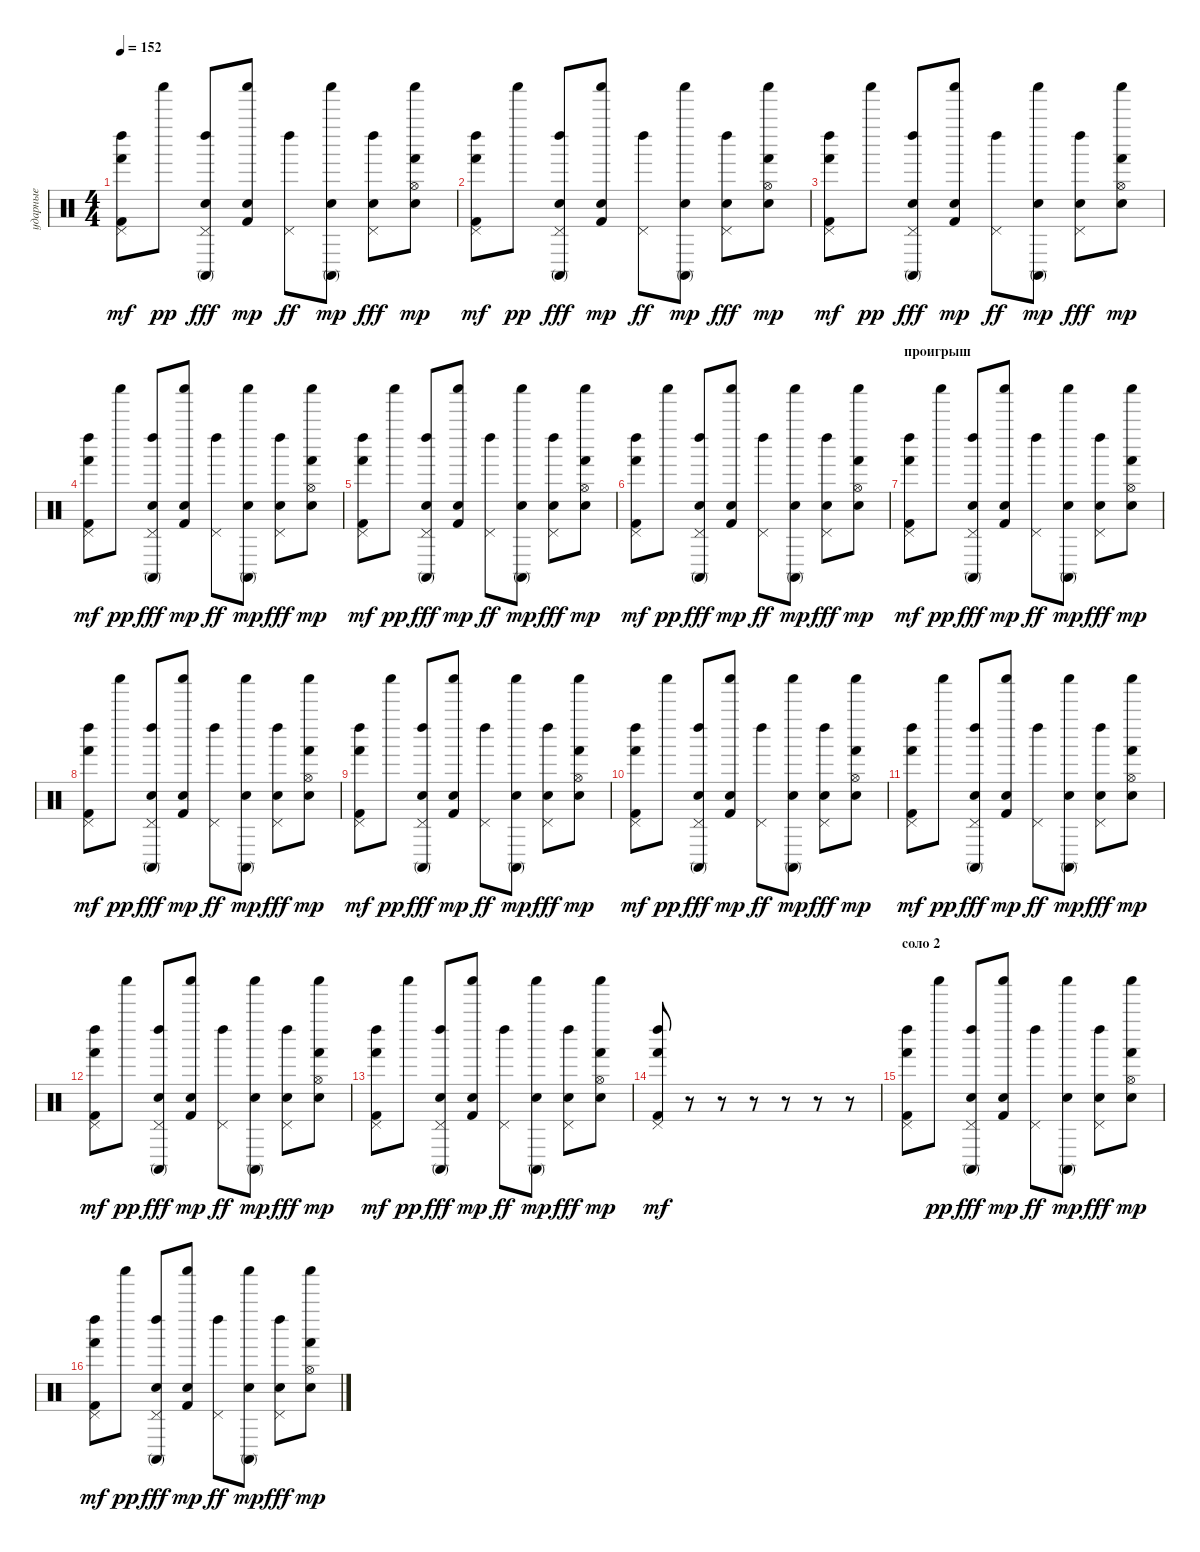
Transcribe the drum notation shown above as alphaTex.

\track ("ударные" "ударные") {instrument percussion}
\staff {score}
\articulation defaults
\ts (4 4)
\tempo 152
\clef neutral
\ks c
("Pedal Hi-Hat (hit)" "Left Maraca (hit)" "Hand (hit)" "Kick (hit) 2").8{dy mf} "Shaker (hit)".8{dy pp} ("Pedal Hi-Hat (hit)" "Left Maraca (hit)" "Conga high (mute)" "Snare (hit) 2").8{dy fff} ("Shaker (hit)" "Kick (hit) 2" "Electric Snare (hit)").8{dy mp} ("Pedal Hi-Hat (hit)" "Left Maraca (hit)").8{dy ff} ("Shaker (hit)" "Conga high (mute)" "Electric Snare (hit)").8{dy mp} ("Pedal Hi-Hat (hit)" "Left Maraca (hit)" "Snare (hit) 2").8{dy fff} ("Shaker (hit)" "Hi-Hat (open)" "Hand (hit)" "Electric Snare (hit)").8{dy mp} |
("Pedal Hi-Hat (hit)" "Left Maraca (hit)" "Hand (hit)" "Kick (hit) 2").8{dy mf} "Shaker (hit)".8{dy pp} ("Pedal Hi-Hat (hit)" "Left Maraca (hit)" "Conga high (mute)" "Snare (hit) 2").8{dy fff} ("Shaker (hit)" "Kick (hit) 2" "Electric Snare (hit)").8{dy mp} ("Pedal Hi-Hat (hit)" "Left Maraca (hit)").8{dy ff} ("Shaker (hit)" "Conga high (mute)" "Electric Snare (hit)").8{dy mp} ("Pedal Hi-Hat (hit)" "Left Maraca (hit)" "Snare (hit) 2").8{dy fff} ("Shaker (hit)" "Hi-Hat (open)" "Hand (hit)" "Electric Snare (hit)").8{dy mp} |
("Pedal Hi-Hat (hit)" "Left Maraca (hit)" "Hand (hit)" "Kick (hit) 2").8{dy mf} "Shaker (hit)".8{dy pp} ("Pedal Hi-Hat (hit)" "Left Maraca (hit)" "Conga high (mute)" "Snare (hit) 2").8{dy fff} ("Shaker (hit)" "Kick (hit) 2" "Electric Snare (hit)").8{dy mp} ("Pedal Hi-Hat (hit)" "Left Maraca (hit)").8{dy ff} ("Shaker (hit)" "Conga high (mute)" "Electric Snare (hit)").8{dy mp} ("Pedal Hi-Hat (hit)" "Left Maraca (hit)" "Snare (hit) 2").8{dy fff} ("Shaker (hit)" "Hi-Hat (open)" "Hand (hit)" "Electric Snare (hit)").8{dy mp} |
("Pedal Hi-Hat (hit)" "Left Maraca (hit)" "Hand (hit)" "Kick (hit) 2").8{dy mf} "Shaker (hit)".8{dy pp} ("Pedal Hi-Hat (hit)" "Left Maraca (hit)" "Conga high (mute)" "Snare (hit) 2").8{dy fff} ("Shaker (hit)" "Kick (hit) 2" "Electric Snare (hit)").8{dy mp} ("Pedal Hi-Hat (hit)" "Left Maraca (hit)").8{dy ff} ("Shaker (hit)" "Conga high (mute)" "Electric Snare (hit)").8{dy mp} ("Pedal Hi-Hat (hit)" "Left Maraca (hit)" "Snare (hit) 2").8{dy fff} ("Shaker (hit)" "Hi-Hat (open)" "Hand (hit)" "Electric Snare (hit)").8{dy mp} |
("Pedal Hi-Hat (hit)" "Left Maraca (hit)" "Hand (hit)" "Kick (hit) 2").8{dy mf} "Shaker (hit)".8{dy pp} ("Pedal Hi-Hat (hit)" "Left Maraca (hit)" "Conga high (mute)" "Snare (hit) 2").8{dy fff} ("Shaker (hit)" "Kick (hit) 2" "Electric Snare (hit)").8{dy mp} ("Pedal Hi-Hat (hit)" "Left Maraca (hit)").8{dy ff} ("Shaker (hit)" "Conga high (mute)" "Electric Snare (hit)").8{dy mp} ("Pedal Hi-Hat (hit)" "Left Maraca (hit)" "Snare (hit) 2").8{dy fff} ("Shaker (hit)" "Hi-Hat (open)" "Hand (hit)" "Electric Snare (hit)").8{dy mp} |
("Pedal Hi-Hat (hit)" "Left Maraca (hit)" "Hand (hit)" "Kick (hit) 2").8{dy mf} "Shaker (hit)".8{dy pp} ("Pedal Hi-Hat (hit)" "Left Maraca (hit)" "Conga high (mute)" "Snare (hit) 2").8{dy fff} ("Shaker (hit)" "Kick (hit) 2" "Electric Snare (hit)").8{dy mp} ("Pedal Hi-Hat (hit)" "Left Maraca (hit)").8{dy ff} ("Shaker (hit)" "Conga high (mute)" "Electric Snare (hit)").8{dy mp} ("Pedal Hi-Hat (hit)" "Left Maraca (hit)" "Snare (hit) 2").8{dy fff} ("Shaker (hit)" "Hi-Hat (open)" "Hand (hit)" "Electric Snare (hit)").8{dy mp} |
\section ("" "проигрыш")
("Pedal Hi-Hat (hit)" "Left Maraca (hit)" "Hand (hit)" "Kick (hit) 2").8{dy mf} "Shaker (hit)".8{dy pp} ("Pedal Hi-Hat (hit)" "Left Maraca (hit)" "Conga high (mute)" "Snare (hit) 2").8{dy fff} ("Shaker (hit)" "Kick (hit) 2" "Electric Snare (hit)").8{dy mp} ("Pedal Hi-Hat (hit)" "Left Maraca (hit)").8{dy ff} ("Shaker (hit)" "Conga high (mute)" "Electric Snare (hit)").8{dy mp} ("Pedal Hi-Hat (hit)" "Left Maraca (hit)" "Snare (hit) 2").8{dy fff} ("Shaker (hit)" "Hi-Hat (open)" "Hand (hit)" "Electric Snare (hit)").8{dy mp} |
("Pedal Hi-Hat (hit)" "Left Maraca (hit)" "Hand (hit)" "Kick (hit) 2").8{dy mf} "Shaker (hit)".8{dy pp} ("Pedal Hi-Hat (hit)" "Left Maraca (hit)" "Conga high (mute)" "Snare (hit) 2").8{dy fff} ("Shaker (hit)" "Kick (hit) 2" "Electric Snare (hit)").8{dy mp} ("Pedal Hi-Hat (hit)" "Left Maraca (hit)").8{dy ff} ("Shaker (hit)" "Conga high (mute)" "Electric Snare (hit)").8{dy mp} ("Pedal Hi-Hat (hit)" "Left Maraca (hit)" "Snare (hit) 2").8{dy fff} ("Shaker (hit)" "Hi-Hat (open)" "Hand (hit)" "Electric Snare (hit)").8{dy mp} |
("Pedal Hi-Hat (hit)" "Left Maraca (hit)" "Hand (hit)" "Kick (hit) 2").8{dy mf} "Shaker (hit)".8{dy pp} ("Pedal Hi-Hat (hit)" "Left Maraca (hit)" "Conga high (mute)" "Snare (hit) 2").8{dy fff} ("Shaker (hit)" "Kick (hit) 2" "Electric Snare (hit)").8{dy mp} ("Pedal Hi-Hat (hit)" "Left Maraca (hit)").8{dy ff} ("Shaker (hit)" "Conga high (mute)" "Electric Snare (hit)").8{dy mp} ("Pedal Hi-Hat (hit)" "Left Maraca (hit)" "Snare (hit) 2").8{dy fff} ("Shaker (hit)" "Hi-Hat (open)" "Hand (hit)" "Electric Snare (hit)").8{dy mp} |
("Pedal Hi-Hat (hit)" "Left Maraca (hit)" "Hand (hit)" "Kick (hit) 2").8{dy mf} "Shaker (hit)".8{dy pp} ("Pedal Hi-Hat (hit)" "Left Maraca (hit)" "Conga high (mute)" "Snare (hit) 2").8{dy fff} ("Shaker (hit)" "Kick (hit) 2" "Electric Snare (hit)").8{dy mp} ("Pedal Hi-Hat (hit)" "Left Maraca (hit)").8{dy ff} ("Shaker (hit)" "Conga high (mute)" "Electric Snare (hit)").8{dy mp} ("Pedal Hi-Hat (hit)" "Left Maraca (hit)" "Snare (hit) 2").8{dy fff} ("Shaker (hit)" "Hi-Hat (open)" "Hand (hit)" "Electric Snare (hit)").8{dy mp} |
("Pedal Hi-Hat (hit)" "Left Maraca (hit)" "Hand (hit)" "Kick (hit) 2").8{dy mf} "Shaker (hit)".8{dy pp} ("Pedal Hi-Hat (hit)" "Left Maraca (hit)" "Conga high (mute)" "Snare (hit) 2").8{dy fff} ("Shaker (hit)" "Kick (hit) 2" "Electric Snare (hit)").8{dy mp} ("Pedal Hi-Hat (hit)" "Left Maraca (hit)").8{dy ff} ("Shaker (hit)" "Conga high (mute)" "Electric Snare (hit)").8{dy mp} ("Pedal Hi-Hat (hit)" "Left Maraca (hit)" "Snare (hit) 2").8{dy fff} ("Shaker (hit)" "Hi-Hat (open)" "Hand (hit)" "Electric Snare (hit)").8{dy mp} |
("Pedal Hi-Hat (hit)" "Left Maraca (hit)" "Hand (hit)" "Kick (hit) 2").8{dy mf} "Shaker (hit)".8{dy pp} ("Pedal Hi-Hat (hit)" "Left Maraca (hit)" "Conga high (mute)" "Snare (hit) 2").8{dy fff} ("Shaker (hit)" "Kick (hit) 2" "Electric Snare (hit)").8{dy mp} ("Pedal Hi-Hat (hit)" "Left Maraca (hit)").8{dy ff} ("Shaker (hit)" "Conga high (mute)" "Electric Snare (hit)").8{dy mp} ("Pedal Hi-Hat (hit)" "Left Maraca (hit)" "Snare (hit) 2").8{dy fff} ("Shaker (hit)" "Hi-Hat (open)" "Hand (hit)" "Electric Snare (hit)").8{dy mp} |
("Pedal Hi-Hat (hit)" "Left Maraca (hit)" "Hand (hit)" "Kick (hit) 2").8{dy mf} "Shaker (hit)".8{dy pp} ("Pedal Hi-Hat (hit)" "Left Maraca (hit)" "Conga high (mute)" "Snare (hit) 2").8{dy fff} ("Shaker (hit)" "Kick (hit) 2" "Electric Snare (hit)").8{dy mp} ("Pedal Hi-Hat (hit)" "Left Maraca (hit)").8{dy ff} ("Shaker (hit)" "Conga high (mute)" "Electric Snare (hit)").8{dy mp} ("Pedal Hi-Hat (hit)" "Left Maraca (hit)" "Snare (hit) 2").8{dy fff} ("Shaker (hit)" "Hi-Hat (open)" "Hand (hit)" "Electric Snare (hit)").8{dy mp} |
("Pedal Hi-Hat (hit)" "Left Maraca (hit)" "Hand (hit)" "Kick (hit) 2").8{dy mf} r.8 r.8 r.8 r.8 r.8 r.8 |
\section ("" "соло 2")
("Pedal Hi-Hat (hit)" "Left Maraca (hit)" "Hand (hit)" "Kick (hit) 2").8 "Shaker (hit)".8{dy pp} ("Pedal Hi-Hat (hit)" "Left Maraca (hit)" "Conga high (mute)" "Snare (hit) 2").8{dy fff} ("Shaker (hit)" "Kick (hit) 2" "Electric Snare (hit)").8{dy mp} ("Pedal Hi-Hat (hit)" "Left Maraca (hit)").8{dy ff} ("Shaker (hit)" "Conga high (mute)" "Electric Snare (hit)").8{dy mp} ("Pedal Hi-Hat (hit)" "Left Maraca (hit)" "Snare (hit) 2").8{dy fff} ("Shaker (hit)" "Hi-Hat (open)" "Hand (hit)" "Electric Snare (hit)").8{dy mp} |
("Pedal Hi-Hat (hit)" "Left Maraca (hit)" "Hand (hit)" "Kick (hit) 2").8{dy mf} "Shaker (hit)".8{dy pp} ("Pedal Hi-Hat (hit)" "Left Maraca (hit)" "Conga high (mute)" "Snare (hit) 2").8{dy fff} ("Shaker (hit)" "Kick (hit) 2" "Electric Snare (hit)").8{dy mp} ("Pedal Hi-Hat (hit)" "Left Maraca (hit)").8{dy ff} ("Shaker (hit)" "Conga high (mute)" "Electric Snare (hit)").8{dy mp} ("Pedal Hi-Hat (hit)" "Left Maraca (hit)" "Snare (hit) 2").8{dy fff} ("Shaker (hit)" "Hi-Hat (open)" "Hand (hit)" "Electric Snare (hit)").8{dy mp}
